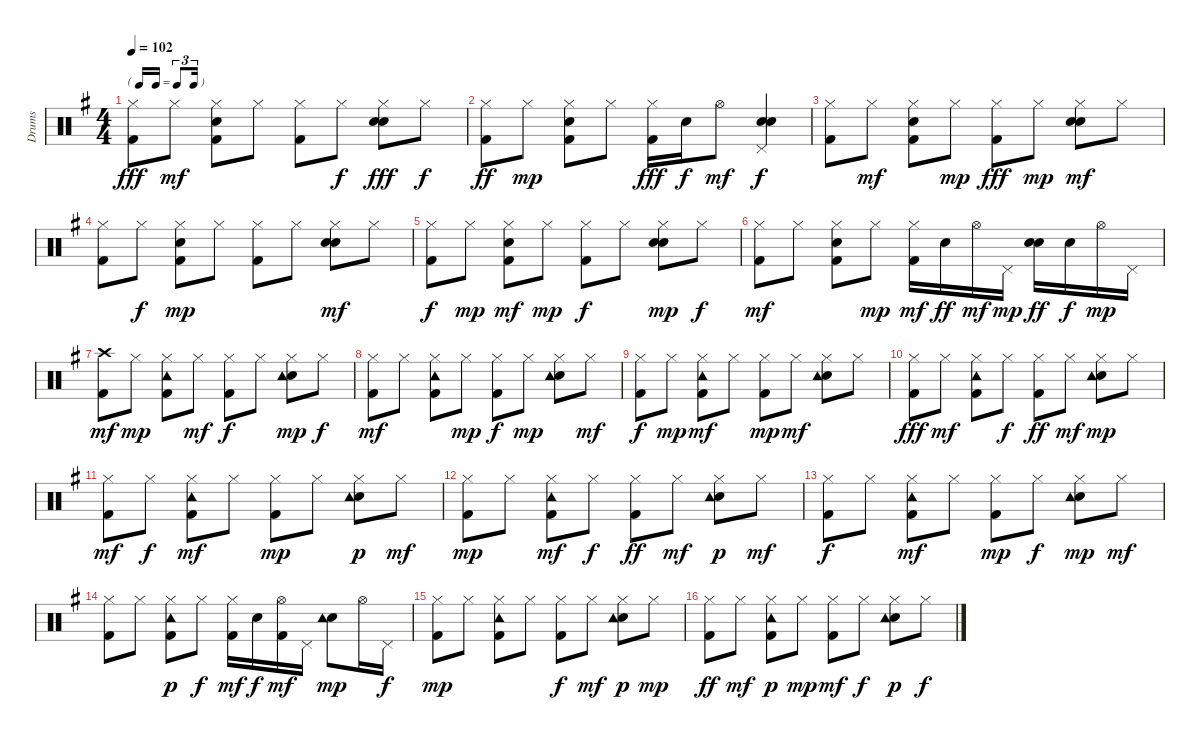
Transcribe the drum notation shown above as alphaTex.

\track ("Drums" "Drums") {instrument percussion}
\staff {score}
\articulation defaults
\ts (4 4)
\tf triplet16th
\tempo 102
\clef neutral
\ks g
("Kick (hit) 2" "Hi-Hat (closed)").8{dy fff} "Hi-Hat (closed)".8{dy mf} ("Kick (hit) 2" "Hand Clap (hit)" "Hi-Hat (closed)").8 "Hi-Hat (closed)".8 ("Kick (hit) 2" "Hi-Hat (closed)").8 "Hi-Hat (closed)".8{dy f} ("Hand Clap (hit)" "Snare (hit) 2" "Hi-Hat (closed)").8{dy fff} "Hi-Hat (closed)".8{dy f} |
("Kick (hit) 2" "Hi-Hat (closed)").8{dy ff} "Hi-Hat (closed)".8{dy mp} ("Kick (hit) 2" "Hand Clap (hit)" "Hi-Hat (closed)").8 "Hi-Hat (closed)".8 ("Kick (hit) 2" "Hi-Hat (closed)").16{dy fff} "Snare (hit) 2".16{dy f} "Hi-Hat (open)".8{dy mf} ("Hand Clap (hit)" "Snare (hit) 2" "Pedal Hi-Hat (hit)").4{dy f} |
("Kick (hit) 2" "Hi-Hat (closed)").8 "Hi-Hat (closed)".8{dy mf} ("Kick (hit) 2" "Hand Clap (hit)" "Hi-Hat (closed)").8 "Hi-Hat (closed)".8{dy mp} ("Kick (hit) 2" "Hi-Hat (closed)").8{dy fff} "Hi-Hat (closed)".8{dy mp} ("Hand Clap (hit)" "Snare (hit) 2" "Hi-Hat (closed)").8{dy mf} "Hi-Hat (closed)".8 |
("Kick (hit) 2" "Hi-Hat (closed)").8 "Hi-Hat (closed)".8{dy f} ("Kick (hit) 2" "Hand Clap (hit)" "Hi-Hat (closed)").8{dy mp} "Hi-Hat (closed)".8 ("Kick (hit) 2" "Hi-Hat (closed)").8 "Hi-Hat (closed)".8 ("Hand Clap (hit)" "Snare (hit) 2" "Hi-Hat (closed)").8{dy mf} "Hi-Hat (closed)".8 |
("Kick (hit) 2" "Hi-Hat (closed)").8{dy f} "Hi-Hat (closed)".8{dy mp} ("Kick (hit) 2" "Hand Clap (hit)" "Hi-Hat (closed)").8{dy mf} "Hi-Hat (closed)".8{dy mp} ("Kick (hit) 2" "Hi-Hat (closed)").8{dy f} "Hi-Hat (closed)".8 ("Hand Clap (hit)" "Snare (hit) 2" "Hi-Hat (closed)").8{dy mp} "Hi-Hat (closed)".8{dy f} |
("Kick (hit) 2" "Hi-Hat (closed)").8{dy mf} "Hi-Hat (closed)".8 ("Kick (hit) 2" "Hand Clap (hit)" "Hi-Hat (closed)").8 "Hi-Hat (closed)".8{dy mp} ("Kick (hit) 2" "Hi-Hat (closed)").16{dy mf} "Snare (hit) 2".16{dy ff} "Hi-Hat (open)".16{dy mf} "Pedal Hi-Hat (hit)".16{dy mp} ("Hand Clap (hit)" "Snare (hit) 2").16{dy ff} "Snare (hit) 2".16{dy f} "Hi-Hat (open)".16{dy mp} "Pedal Hi-Hat (hit)".16 |
("Kick (hit) 2" "Crash high (hit)").8{dy mf} "Hi-Hat (closed)".8{dy mp} ("Kick (hit) 2" "Hi-Hat (closed)" "Tambourine (hit)").8 "Hi-Hat (closed)".8{dy mf} ("Kick (hit) 2" "Hi-Hat (closed)").8{dy f} "Hi-Hat (closed)".8 ("Snare (hit) 2" "Hi-Hat (closed)" "Tambourine (hit)").8{dy mp} "Hi-Hat (closed)".8{dy f} |
("Kick (hit) 2" "Hi-Hat (closed)").8{dy mf} "Hi-Hat (closed)".8 ("Kick (hit) 2" "Hi-Hat (closed)" "Tambourine (hit)").8 "Hi-Hat (closed)".8{dy mp} ("Kick (hit) 2" "Hi-Hat (closed)").8{dy f} "Hi-Hat (closed)".8{dy mp} ("Snare (hit) 2" "Hi-Hat (closed)" "Tambourine (hit)").8 "Hi-Hat (closed)".8{dy mf} |
("Kick (hit) 2" "Hi-Hat (closed)").8{dy f} "Hi-Hat (closed)".8{dy mp} ("Kick (hit) 2" "Hi-Hat (closed)" "Tambourine (hit)").8{dy mf} "Hi-Hat (closed)".8 ("Kick (hit) 2" "Hi-Hat (closed)").8{dy mp} "Hi-Hat (closed)".8{dy mf} ("Snare (hit) 2" "Hi-Hat (closed)" "Tambourine (hit)").8 "Hi-Hat (closed)".8 |
("Kick (hit) 2" "Hi-Hat (closed)").8{dy fff} "Hi-Hat (closed)".8{dy mf} ("Kick (hit) 2" "Hi-Hat (closed)" "Tambourine (hit)").8 "Hi-Hat (closed)".8{dy f} ("Kick (hit) 2" "Hi-Hat (closed)").8{dy ff} "Hi-Hat (closed)".8{dy mf} ("Snare (hit) 2" "Hi-Hat (closed)" "Tambourine (hit)").8{dy mp} "Hi-Hat (closed)".8 |
("Kick (hit) 2" "Hi-Hat (closed)").8{dy mf} "Hi-Hat (closed)".8{dy f} ("Kick (hit) 2" "Hi-Hat (closed)" "Tambourine (hit)").8{dy mf} "Hi-Hat (closed)".8 ("Kick (hit) 2" "Hi-Hat (closed)").8{dy mp} "Hi-Hat (closed)".8 ("Snare (hit) 2" "Hi-Hat (closed)" "Tambourine (hit)").8{dy p} "Hi-Hat (closed)".8{dy mf} |
("Kick (hit) 2" "Hi-Hat (closed)").8{dy mp} "Hi-Hat (closed)".8 ("Kick (hit) 2" "Hi-Hat (closed)" "Tambourine (hit)").8{dy mf} "Hi-Hat (closed)".8{dy f} ("Kick (hit) 2" "Hi-Hat (closed)").8{dy ff} "Hi-Hat (closed)".8{dy mf} ("Snare (hit) 2" "Hi-Hat (closed)" "Tambourine (hit)").8{dy p} "Hi-Hat (closed)".8{dy mf} |
("Kick (hit) 2" "Hi-Hat (closed)").8{dy f} "Hi-Hat (closed)".8 ("Kick (hit) 2" "Hi-Hat (closed)" "Tambourine (hit)").8{dy mf} "Hi-Hat (closed)".8 ("Kick (hit) 2" "Hi-Hat (closed)").8{dy mp} "Hi-Hat (closed)".8{dy f} ("Snare (hit) 2" "Hi-Hat (closed)" "Tambourine (hit)").8{dy mp} "Hi-Hat (closed)".8{dy mf} |
("Kick (hit) 2" "Hi-Hat (closed)").8 "Hi-Hat (closed)".8 ("Kick (hit) 2" "Hi-Hat (closed)" "Tambourine (hit)").8{dy p} "Hi-Hat (closed)".8{dy f} ("Kick (hit) 2" "Hi-Hat (closed)").16{dy mf} "Snare (hit) 2".16{dy f} ("Kick (hit) 2" "Hi-Hat (open)").16{dy mf} "Pedal Hi-Hat (hit)".16 ("Snare (hit) 2" "Tambourine (hit)").8{dy mp} "Hi-Hat (open)".16 "Pedal Hi-Hat (hit)".16{dy f} |
("Kick (hit) 2" "Hi-Hat (closed)").8{dy mp} "Hi-Hat (closed)".8 ("Kick (hit) 2" "Hi-Hat (closed)" "Tambourine (hit)").8 "Hi-Hat (closed)".8 ("Kick (hit) 2" "Hi-Hat (closed)").8{dy f} "Hi-Hat (closed)".8{dy mf} ("Snare (hit) 2" "Hi-Hat (closed)" "Tambourine (hit)").8{dy p} "Hi-Hat (closed)".8{dy mp} |
("Kick (hit) 2" "Hi-Hat (closed)").8{dy ff} "Hi-Hat (closed)".8{dy mf} ("Kick (hit) 2" "Hi-Hat (closed)" "Tambourine (hit)").8{dy p} "Hi-Hat (closed)".8{dy mp} ("Kick (hit) 2" "Hi-Hat (closed)").8{dy mf} "Hi-Hat (closed)".8{dy f} ("Snare (hit) 2" "Hi-Hat (closed)" "Tambourine (hit)").8{dy p} "Hi-Hat (closed)".8{dy f}
